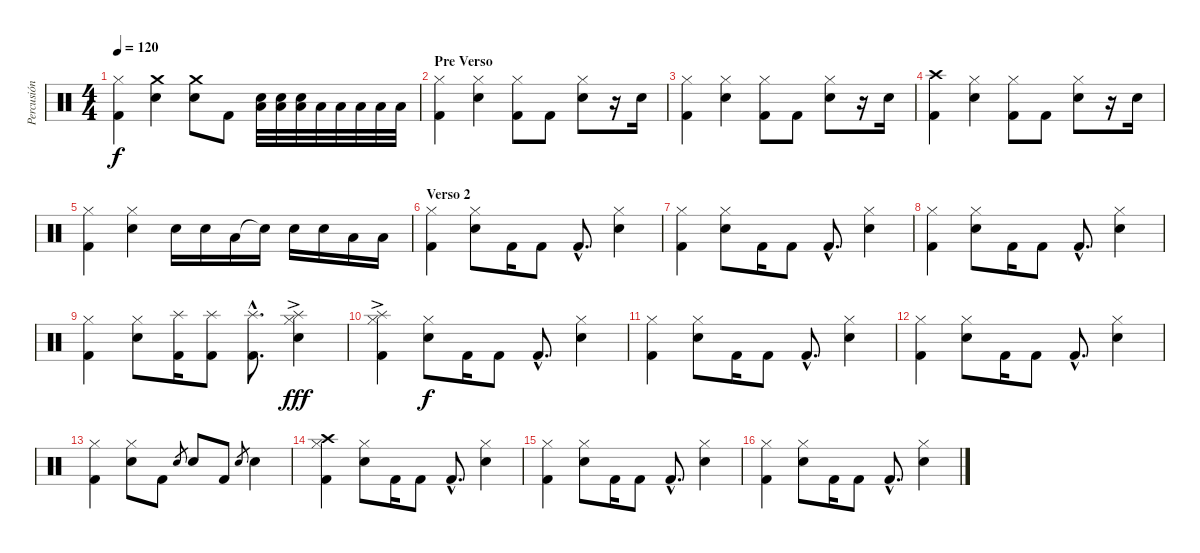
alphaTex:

\track ("Percusión" "Percusión") {instrument percussion}
\staff {score}
\articulation defaults
\ts (4 4)
\tempo 120
\clef neutral
\ks c
("Hi-Hat (closed)" "Kick (hit) 2").4{dy f} ("Crash medium (hit)" "Electric Snare (hit)").4 ("Crash medium (hit)" "Electric Snare (hit)").8 "Kick (hit) 2".8 ("Low Tom (hit)" "Electric Snare (hit)").32 ("Low Tom (hit)" "Electric Snare (hit)").32 ("Low Tom (hit)" "Electric Snare (hit)").32 "Low Tom (hit)".32 "Low Tom (hit)".32 "Low Tom (hit)".32 "Low Tom (hit)".32 "Low Tom (hit)".32 |
\section ("" "Pre Verso")
("Hi-Hat (closed)" "Kick (hit) 2").4 ("Hi-Hat (closed)" "Electric Snare (hit)").4 ("Hi-Hat (closed)" "Kick (hit) 2").8 "Kick (hit) 2".8 ("Hi-Hat (closed)" "Electric Snare (hit)").8 r.16 "Electric Snare (hit)".16 |
("Hi-Hat (closed)" "Kick (hit) 2").4 ("Hi-Hat (closed)" "Electric Snare (hit)").4 ("Hi-Hat (closed)" "Kick (hit) 2").8 "Kick (hit) 2".8 ("Hi-Hat (closed)" "Electric Snare (hit)").8 r.16 "Electric Snare (hit)".16 |
("Crash high (hit)" "Kick (hit) 2").4 ("Hi-Hat (closed)" "Electric Snare (hit)").4 ("Hi-Hat (closed)" "Kick (hit) 2").8 "Kick (hit) 2".8 ("Hi-Hat (closed)" "Electric Snare (hit)").8 r.16 "Electric Snare (hit)".16 |
("Hi-Hat (closed)" "Kick (hit) 2").4 ("Hi-Hat (closed)" "Electric Snare (hit)").4 "Electric Snare (hit)".16 "Electric Snare (hit)".16 "Low Tom (hit)".16 "Snare (hit)"{t}.16 "Electric Snare (hit)".16 "Electric Snare (hit)".16 "Low Tom (hit)".16 "Low Tom (hit)".16 |
\section ("" "Verso 2")
("Hi-Hat (closed)" "Kick (hit) 2").4 ("Hi-Hat (closed)" "Electric Snare (hit)").8 "Kick (hit) 2".16 "Kick (hit) 2".8 "Kick (hit) 2"{hac}.8{d} ("Hi-Hat (closed)" "Electric Snare (hit)").4 |
("Hi-Hat (closed)" "Kick (hit) 2").4 ("Hi-Hat (closed)" "Electric Snare (hit)").8 "Kick (hit) 2".16 "Kick (hit) 2".8 "Kick (hit) 2"{hac}.8{d} ("Hi-Hat (closed)" "Electric Snare (hit)").4 |
("Hi-Hat (closed)" "Kick (hit) 2").4 ("Hi-Hat (closed)" "Electric Snare (hit)").8 "Kick (hit) 2".16 "Kick (hit) 2".8 "Kick (hit) 2"{hac}.8{d} ("Hi-Hat (closed)" "Electric Snare (hit)").4 |
("Hi-Hat (closed)" "Kick (hit) 2").4 ("Hi-Hat (closed)" "Electric Snare (hit)").8 ("Kick (hit) 2" "Splash (hit)").16 ("Kick (hit) 2" "Splash (hit)").8 ("Kick (hit) 2"{hac} "Splash (hit)"{hac}).8{d} ("Hi-Hat (closed)"{ac} "Splash (hit)" "Electric Snare (hit)").4{dy fff} |
("Hi-Hat (closed)" "Kick (hit) 2" "Splash (hit)"{ac}).4 ("Hi-Hat (closed)" "Electric Snare (hit)").8{dy f} "Kick (hit) 2".16 "Kick (hit) 2".8 "Kick (hit) 2"{hac}.8{d} ("Hi-Hat (closed)" "Electric Snare (hit)").4 |
("Hi-Hat (closed)" "Kick (hit) 2").4 ("Hi-Hat (closed)" "Electric Snare (hit)").8 "Kick (hit) 2".16 "Kick (hit) 2".8 "Kick (hit) 2"{hac}.8{d} ("Hi-Hat (closed)" "Electric Snare (hit)").4 |
("Hi-Hat (closed)" "Kick (hit) 2").4 ("Hi-Hat (closed)" "Electric Snare (hit)").8 "Kick (hit) 2".16 "Kick (hit) 2".8 "Kick (hit) 2"{hac}.8{d} ("Hi-Hat (closed)" "Electric Snare (hit)").4 |
("Hi-Hat (closed)" "Kick (hit) 2").4 ("Hi-Hat (closed)" "Electric Snare (hit)").8 "Kick (hit) 2".8 "Electric Snare (hit)".8{gr} "Electric Snare (hit)".8 "Kick (hit) 2".8 "Electric Snare (hit)".8{gr} "Electric Snare (hit)".4 |
("Hi-Hat (closed)" "Kick (hit) 2" "Crash high (hit)").4 ("Hi-Hat (closed)" "Electric Snare (hit)").8 "Kick (hit) 2".16 "Kick (hit) 2".8 "Kick (hit) 2"{hac}.8{d} ("Hi-Hat (closed)" "Electric Snare (hit)").4 |
("Hi-Hat (closed)" "Kick (hit) 2").4 ("Hi-Hat (closed)" "Electric Snare (hit)").8 "Kick (hit) 2".16 "Kick (hit) 2".8 "Kick (hit) 2"{hac}.8{d} ("Hi-Hat (closed)" "Electric Snare (hit)").4 |
("Hi-Hat (closed)" "Kick (hit) 2").4 ("Hi-Hat (closed)" "Electric Snare (hit)").8 "Kick (hit) 2".16 "Kick (hit) 2".8 "Kick (hit) 2"{hac}.8{d} ("Hi-Hat (closed)" "Electric Snare (hit)").4
